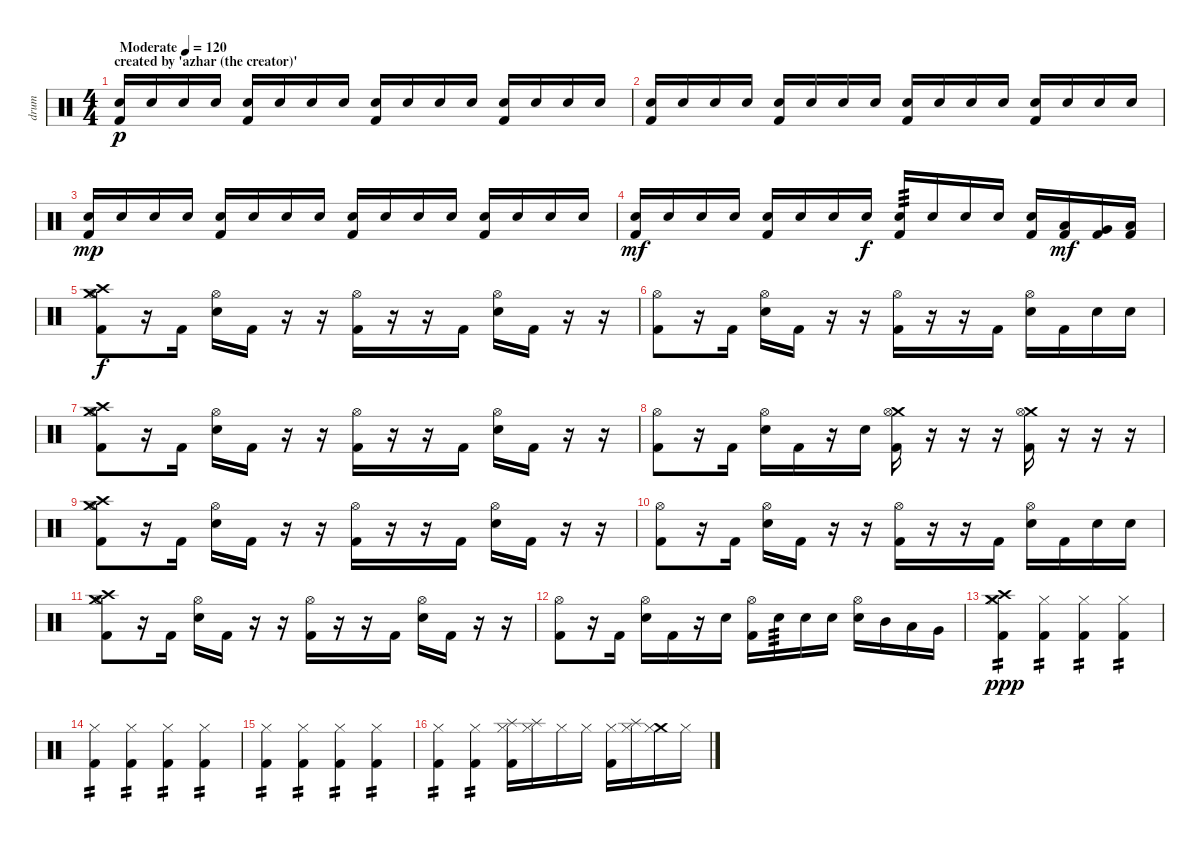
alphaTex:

\track ("drum" "drum") {instrument percussion}
\staff {score}
\articulation defaults
\ts (4 4)
\section ("" "created by 'azhar (the creator)'")
\tempo (120 "Moderate")
\clef neutral
\ks c
("Electric Snare (hit)" "Kick (hit) 2").16{dy p} "Electric Snare (hit)".16 "Electric Snare (hit)".16 "Electric Snare (hit)".16 ("Electric Snare (hit)" "Kick (hit) 2").16 "Electric Snare (hit)".16 "Electric Snare (hit)".16 "Electric Snare (hit)".16 ("Electric Snare (hit)" "Kick (hit) 2").16 "Electric Snare (hit)".16 "Electric Snare (hit)".16 "Electric Snare (hit)".16 ("Electric Snare (hit)" "Kick (hit) 2").16 "Electric Snare (hit)".16 "Electric Snare (hit)".16 "Electric Snare (hit)".16 |
("Electric Snare (hit)" "Kick (hit) 2").16 "Electric Snare (hit)".16 "Electric Snare (hit)".16 "Electric Snare (hit)".16 ("Electric Snare (hit)" "Kick (hit) 2").16 "Electric Snare (hit)".16 "Electric Snare (hit)".16 "Electric Snare (hit)".16 ("Electric Snare (hit)" "Kick (hit) 2").16 "Electric Snare (hit)".16 "Electric Snare (hit)".16 "Electric Snare (hit)".16 ("Electric Snare (hit)" "Kick (hit) 2").16 "Electric Snare (hit)".16 "Electric Snare (hit)".16 "Electric Snare (hit)".16 |
("Electric Snare (hit)" "Kick (hit) 2").16{dy mp} "Electric Snare (hit)".16 "Electric Snare (hit)".16 "Electric Snare (hit)".16 ("Electric Snare (hit)" "Kick (hit) 2").16 "Electric Snare (hit)".16 "Electric Snare (hit)".16 "Electric Snare (hit)".16 ("Electric Snare (hit)" "Kick (hit) 2").16 "Electric Snare (hit)".16 "Electric Snare (hit)".16 "Electric Snare (hit)".16 ("Electric Snare (hit)" "Kick (hit) 2").16 "Electric Snare (hit)".16 "Electric Snare (hit)".16 "Electric Snare (hit)".16 |
("Electric Snare (hit)" "Kick (hit) 2").16{dy mf} "Electric Snare (hit)".16 "Electric Snare (hit)".16 "Electric Snare (hit)".16 ("Electric Snare (hit)" "Kick (hit) 2").16 "Electric Snare (hit)".16 "Electric Snare (hit)".16 "Electric Snare (hit)".16{dy f} ("Electric Snare (hit)" "Kick (hit) 2").16{tp 3} "Electric Snare (hit)".16 "Electric Snare (hit)".16 "Electric Snare (hit)".16 ("Electric Snare (hit)" "Kick (hit) 2").16 ("Low Tom (hit)" "Kick (hit) 2").16{dy mf} ("Very Low Tom (hit)" "Kick (hit) 2").16 ("Low Floor Tom (hit)" "Kick (hit) 2").16 |
("Crash medium (hit)" "Hi-Hat (open)" "Crash high (hit)" "Kick (hit) 2").8{dy f} r.16 "Kick (hit) 2".16 ("Hi-Hat (open)" "Electric Snare (hit)").16 "Kick (hit) 2".16 r.16 r.16 ("Hi-Hat (open)" "Kick (hit) 2").16 r.16 r.16 "Kick (hit) 2".16 ("Hi-Hat (open)" "Electric Snare (hit)").16 "Kick (hit) 2".16 r.16 r.16 |
("Hi-Hat (open)" "Kick (hit) 2").8 r.16 "Kick (hit) 2".16 ("Hi-Hat (open)" "Electric Snare (hit)").16 "Kick (hit) 2".16 r.16 r.16 ("Hi-Hat (open)" "Kick (hit) 2").16 r.16 r.16 "Kick (hit) 2".16 ("Hi-Hat (open)" "Electric Snare (hit)").16 "Kick (hit) 2".16 "Electric Snare (hit)".16 "Electric Snare (hit)".16 |
("Crash medium (hit)" "Hi-Hat (open)" "Crash high (hit)" "Kick (hit) 2").8 r.16 "Kick (hit) 2".16 ("Hi-Hat (open)" "Electric Snare (hit)").16 "Kick (hit) 2".16 r.16 r.16 ("Hi-Hat (open)" "Kick (hit) 2").16 r.16 r.16 "Kick (hit) 2".16 ("Hi-Hat (open)" "Electric Snare (hit)").16 "Kick (hit) 2".16 r.16 r.16 |
("Hi-Hat (open)" "Kick (hit) 2").8 r.16 "Kick (hit) 2".16 ("Hi-Hat (open)" "Electric Snare (hit)").16 "Kick (hit) 2".16 r.16 "Electric Snare (hit)".16 ("Crash medium (hit)" "Hi-Hat (open)" "Kick (hit) 2").16 r.16 r.16 r.16 ("Crash medium (hit)" "Hi-Hat (open)" "Kick (hit) 2").16 r.16 r.16 r.16 |
("Crash medium (hit)" "Hi-Hat (open)" "Crash high (hit)" "Kick (hit) 2").8 r.16 "Kick (hit) 2".16 ("Hi-Hat (open)" "Electric Snare (hit)").16 "Kick (hit) 2".16 r.16 r.16 ("Hi-Hat (open)" "Kick (hit) 2").16 r.16 r.16 "Kick (hit) 2".16 ("Hi-Hat (open)" "Electric Snare (hit)").16 "Kick (hit) 2".16 r.16 r.16 |
("Hi-Hat (open)" "Kick (hit) 2").8 r.16 "Kick (hit) 2".16 ("Hi-Hat (open)" "Electric Snare (hit)").16 "Kick (hit) 2".16 r.16 r.16 ("Hi-Hat (open)" "Kick (hit) 2").16 r.16 r.16 "Kick (hit) 2".16 ("Hi-Hat (open)" "Electric Snare (hit)").16 "Kick (hit) 2".16 "Electric Snare (hit)".16 "Electric Snare (hit)".16 |
("Crash medium (hit)" "Hi-Hat (open)" "Crash high (hit)" "Kick (hit) 2").8 r.16 "Kick (hit) 2".16 ("Hi-Hat (open)" "Electric Snare (hit)").16 "Kick (hit) 2".16 r.16 r.16 ("Hi-Hat (open)" "Kick (hit) 2").16 r.16 r.16 "Kick (hit) 2".16 ("Hi-Hat (open)" "Electric Snare (hit)").16 "Kick (hit) 2".16 r.16 r.16 |
("Hi-Hat (open)" "Kick (hit) 2").8 r.16 "Kick (hit) 2".16 ("Hi-Hat (open)" "Electric Snare (hit)").16 "Kick (hit) 2".16 r.16 "Electric Snare (hit)".16 ("Hi-Hat (open)" "Kick (hit) 2").16 "Electric Snare (hit)".16{tp 3} "Electric Snare (hit)".16 "Electric Snare (hit)".16 ("Hi-Hat (open)" "Electric Snare (hit)").16 "Mid Tom (hit)".16 "Low Tom (hit)".16 "Very Low Tom (hit)".16 |
("Crash medium (hit)" "Crash high (hit)" "Kick (hit) 2" "Hi-Hat (closed)").4{tp 2 dy ppp} ("Kick (hit) 2" "Hi-Hat (closed)").4{tp 2} ("Kick (hit) 2" "Hi-Hat (closed)").4{tp 2} ("Kick (hit) 2" "Hi-Hat (closed)").4{tp 2} |
("Kick (hit) 2" "Hi-Hat (closed)").4{tp 2} ("Kick (hit) 2" "Hi-Hat (closed)").4{tp 2} ("Kick (hit) 2" "Hi-Hat (closed)").4{tp 2} ("Kick (hit) 2" "Hi-Hat (closed)").4{tp 2} |
("Kick (hit) 2" "Hi-Hat (closed)").4{tp 2} ("Kick (hit) 2" "Hi-Hat (closed)").4{tp 2} ("Kick (hit) 2" "Hi-Hat (closed)").4{tp 2} ("Kick (hit) 2" "Hi-Hat (closed)").4{tp 2} |
("Kick (hit) 2" "Hi-Hat (closed)").4{tp 2} ("Kick (hit) 2" "Hi-Hat (closed)").4{tp 2} ("Splash (hit)" "Kick (hit) 2" "Hi-Hat (closed)").16 ("Splash (hit)" "Hi-Hat (closed)").16 "Hi-Hat (closed)".16 "Hi-Hat (closed)".16 ("Kick (hit) 2" "Hi-Hat (closed)").16 ("Splash (hit)" "Hi-Hat (closed)").16 ("Crash medium (hit)" "Hi-Hat (closed)").16 "Hi-Hat (closed)".16
